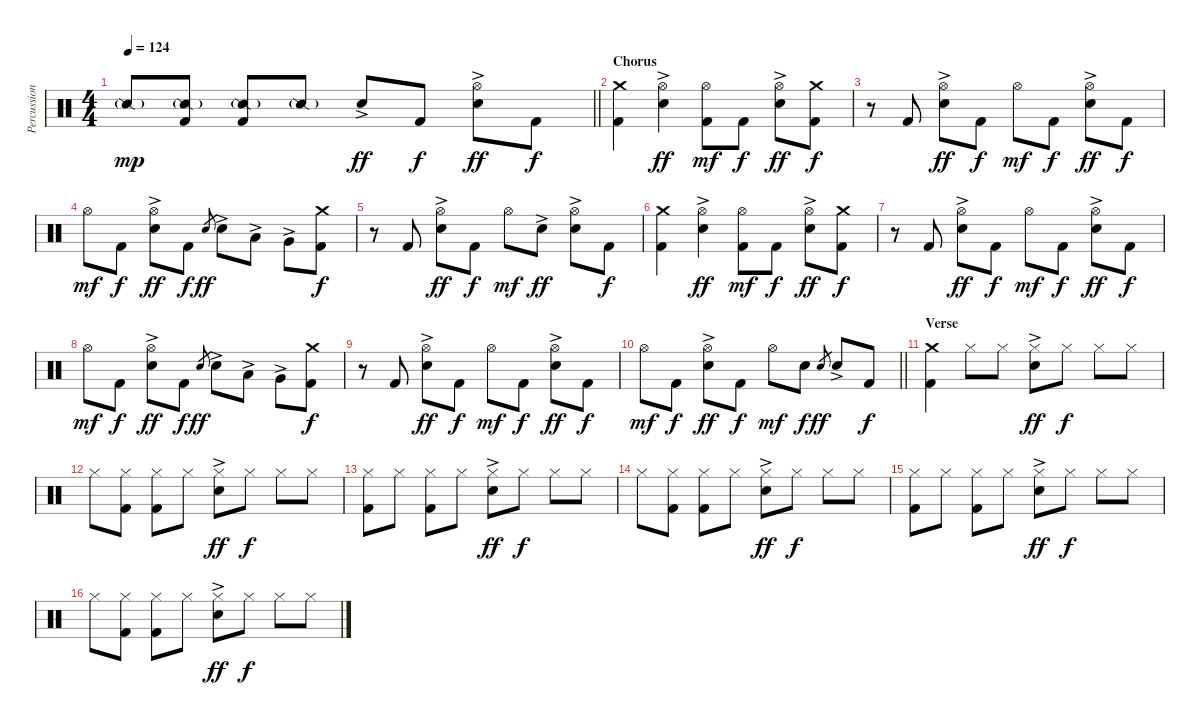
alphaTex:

\track ("Percussion" "Percussion") {instrument percussion}
\staff {score}
\articulation defaults
\ts (4 4)
\tempo 124
\clef neutral
\barLineRight lightlight
\ks c "Snare (side stick) 2"{g}.8{dy mp}
("Snare (side stick) 2"{g} "Kick (hit) 2").8 ("Snare (side stick) 2"{g} "Kick (hit) 2").8 "Snare (side stick) 2"{g}.8 "Electric Snare (hit)"{ac}.8{dy ff} "Kick (hit) 2".8{dy f} ("Hi-Hat (open)" "Electric Snare (hit)"{ac}).8{dy ff} "Kick (hit) 2".8{dy f} |
\section ("" "Chorus")
("Crash medium (hit)" "Kick (hit) 2").4 ("Hi-Hat (open)" "Electric Snare (hit)"{ac}).4{dy ff} ("Hi-Hat (open)" "Kick (hit) 2").8{dy mf} "Kick (hit) 2".8{dy f} ("Hi-Hat (open)" "Electric Snare (hit)"{ac}).8{dy ff} ("Crash medium (hit)" "Kick (hit) 2").8{dy f} |
r.8 "Kick (hit) 2".8 ("Hi-Hat (open)" "Electric Snare (hit)"{ac}).8{dy ff} "Kick (hit) 2".8{dy f} "Hi-Hat (open)".8{dy mf} "Kick (hit) 2".8{dy f} ("Hi-Hat (open)" "Electric Snare (hit)"{ac}).8{dy ff} "Kick (hit) 2".8{dy f} |
"Hi-Hat (open)".8{dy mf} "Kick (hit) 2".8{dy f} ("Hi-Hat (open)" "Electric Snare (hit)"{ac}).8{dy ff} "Kick (hit) 2".8{dy f} "Electric Snare (hit)".8{gr dy ff} "Electric Snare (hit)"{ac}.8 "Low Tom (hit)"{ac}.8 "Very Low Tom (hit)"{ac}.8 ("Crash medium (hit)" "Kick (hit) 2").8{dy f} |
r.8 "Kick (hit) 2".8 ("Hi-Hat (open)" "Electric Snare (hit)"{ac}).8{dy ff} "Kick (hit) 2".8{dy f} "Hi-Hat (open)".8{dy mf} "Electric Snare (hit)"{ac}.8{dy ff} ("Hi-Hat (open)" "Electric Snare (hit)"{ac}).8 "Kick (hit) 2".8{dy f} |
("Crash medium (hit)" "Kick (hit) 2").4 ("Hi-Hat (open)" "Electric Snare (hit)"{ac}).4{dy ff} ("Hi-Hat (open)" "Kick (hit) 2").8{dy mf} "Kick (hit) 2".8{dy f} ("Hi-Hat (open)" "Electric Snare (hit)"{ac}).8{dy ff} ("Crash medium (hit)" "Kick (hit) 2").8{dy f} |
r.8 "Kick (hit) 2".8 ("Hi-Hat (open)" "Electric Snare (hit)"{ac}).8{dy ff} "Kick (hit) 2".8{dy f} "Hi-Hat (open)".8{dy mf} "Kick (hit) 2".8{dy f} ("Hi-Hat (open)" "Electric Snare (hit)"{ac}).8{dy ff} "Kick (hit) 2".8{dy f} |
"Hi-Hat (open)".8{dy mf} "Kick (hit) 2".8{dy f} ("Hi-Hat (open)" "Electric Snare (hit)"{ac}).8{dy ff} "Kick (hit) 2".8{dy f} "Electric Snare (hit)".8{gr dy ff} "Electric Snare (hit)"{ac}.8 "Low Tom (hit)"{ac}.8 "Very Low Tom (hit)"{ac}.8 ("Crash medium (hit)" "Kick (hit) 2").8{dy f} |
r.8 "Kick (hit) 2".8 ("Hi-Hat (open)" "Electric Snare (hit)"{ac}).8{dy ff} "Kick (hit) 2".8{dy f} "Hi-Hat (open)".8{dy mf} "Kick (hit) 2".8{dy f} ("Hi-Hat (open)" "Electric Snare (hit)"{ac}).8{dy ff} "Kick (hit) 2".8{dy f} |
\barLineRight lightlight "Hi-Hat (open)".8{dy mf} "Kick (hit) 2".8{dy f}
("Hi-Hat (open)" "Electric Snare (hit)"{ac}).8{dy ff} "Kick (hit) 2".8{dy f} "Hi-Hat (open)".8{dy mf} "Electric Snare (hit)".8{dy f} "Electric Snare (hit)".8{gr dy ff} "Electric Snare (hit)"{ac}.8 "Kick (hit) 2".8{dy f} |
\section ("" "Verse")
("Crash medium (hit)" "Kick (hit) 2").4 "Hi-Hat (closed)".8 "Hi-Hat (closed)".8 ("Hi-Hat (closed)" "Electric Snare (hit)"{ac}).8{dy ff} "Hi-Hat (closed)".8{dy f} "Hi-Hat (closed)".8 "Hi-Hat (closed)".8 |
"Hi-Hat (closed)".8 ("Hi-Hat (closed)" "Kick (hit) 2").8 ("Hi-Hat (closed)" "Kick (hit) 2").8 "Hi-Hat (closed)".8 ("Hi-Hat (closed)" "Electric Snare (hit)"{ac}).8{dy ff} "Hi-Hat (closed)".8{dy f} "Hi-Hat (closed)".8 "Hi-Hat (closed)".8 |
("Hi-Hat (closed)" "Kick (hit) 2").8 "Hi-Hat (closed)".8 ("Hi-Hat (closed)" "Kick (hit) 2").8 "Hi-Hat (closed)".8 ("Hi-Hat (closed)" "Electric Snare (hit)"{ac}).8{dy ff} "Hi-Hat (closed)".8{dy f} "Hi-Hat (closed)".8 "Hi-Hat (closed)".8 |
"Hi-Hat (closed)".8 ("Hi-Hat (closed)" "Kick (hit) 2").8 ("Hi-Hat (closed)" "Kick (hit) 2").8 "Hi-Hat (closed)".8 ("Hi-Hat (closed)" "Electric Snare (hit)"{ac}).8{dy ff} "Hi-Hat (closed)".8{dy f} "Hi-Hat (closed)".8 "Hi-Hat (closed)".8 |
("Hi-Hat (closed)" "Kick (hit) 2").8 "Hi-Hat (closed)".8 ("Hi-Hat (closed)" "Kick (hit) 2").8 "Hi-Hat (closed)".8 ("Hi-Hat (closed)" "Electric Snare (hit)"{ac}).8{dy ff} "Hi-Hat (closed)".8{dy f} "Hi-Hat (closed)".8 "Hi-Hat (closed)".8 |
"Hi-Hat (closed)".8 ("Hi-Hat (closed)" "Kick (hit) 2").8 ("Hi-Hat (closed)" "Kick (hit) 2").8 "Hi-Hat (closed)".8 ("Hi-Hat (closed)" "Electric Snare (hit)"{ac}).8{dy ff} "Hi-Hat (closed)".8{dy f} "Hi-Hat (closed)".8 "Hi-Hat (closed)".8
